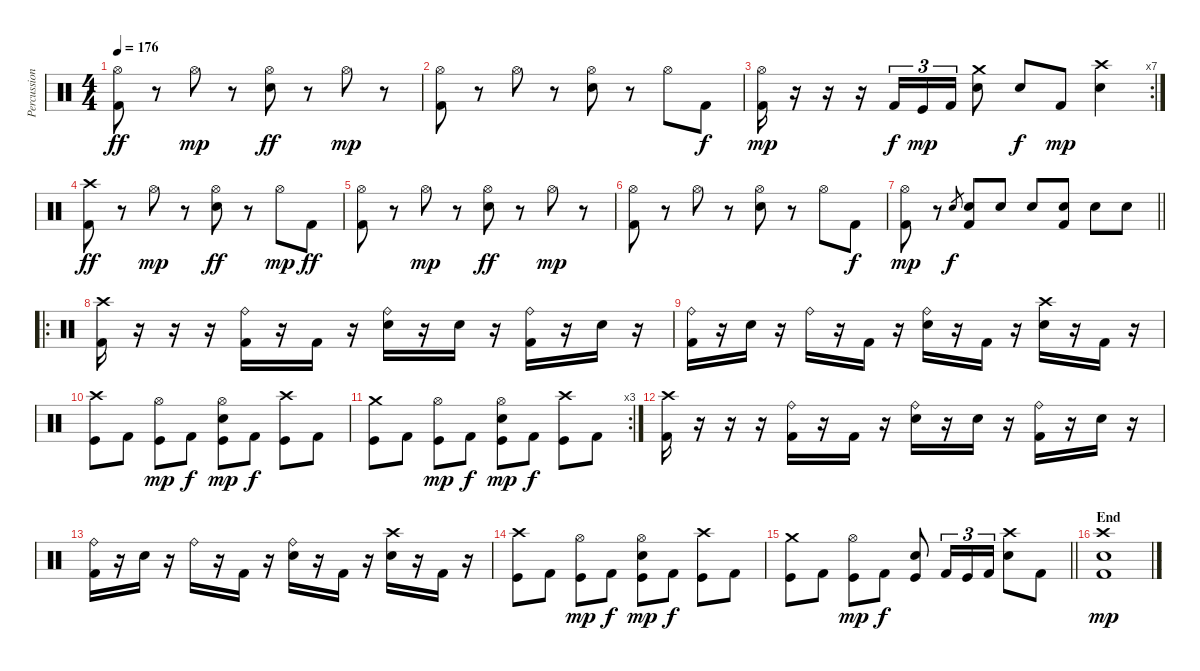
\track ("Percussion" "Percussion") {instrument percussion}
\staff {score}
\articulation defaults
\ts (4 4)
\tempo 176
\clef neutral
\ks c
("Hi-Hat (open)" "Kick (hit) 2").8{dy ff} r.8 "Hi-Hat (open)".8{dy mp} r.8 ("Hi-Hat (open)" "Electric Snare (hit)").8{dy ff} r.8 "Hi-Hat (open)".8{dy mp} r.8 |
("Hi-Hat (open)" "Kick (hit) 2").8 r.8 "Hi-Hat (open)".8 r.8 ("Hi-Hat (open)" "Electric Snare (hit)").8 r.8 "Hi-Hat (open)".8 "Kick (hit) 2".8{dy f} |
\rc 7
("Hi-Hat (open)" "Kick (hit) 2").16{dy mp} r.16 r.16 r.16 "Kick (hit) 2".16{tu (3 2) dy f} "Kick (hit)".16{tu (3 2) dy mp} "Kick (hit) 2".16{tu (3 2)} ("Crash medium (hit)" "Electric Snare (hit)").8 "Electric Snare (hit)".8{dy f} "Kick (hit) 2".8{dy mp} ("Crash high (hit)" "Electric Snare (hit)").4 |
("Crash high (hit)" "Kick (hit) 2").8{dy ff} r.8 "Hi-Hat (open)".8{dy mp} r.8 ("Hi-Hat (open)" "Electric Snare (hit)").8{dy ff} r.8 "Hi-Hat (open)".8{dy mp} "Kick (hit) 2".8{dy ff} |
("Hi-Hat (open)" "Kick (hit) 2").8 r.8 "Hi-Hat (open)".8{dy mp} r.8 ("Hi-Hat (open)" "Electric Snare (hit)").8{dy ff} r.8 "Hi-Hat (open)".8{dy mp} r.8 |
("Hi-Hat (open)" "Kick (hit) 2").8 r.8 "Hi-Hat (open)".8 r.8 ("Hi-Hat (open)" "Electric Snare (hit)").8 r.8 "Hi-Hat (open)".8 "Kick (hit) 2".8{dy f} |
\barLineRight lightlight
("Hi-Hat (open)" "Kick (hit) 2").8{dy mp} r.8 "Electric Snare (hit)"{h}.8{gr dy f} ("Electric Snare (hit)" "Kick (hit) 2").8 "Electric Snare (hit)".8 "Electric Snare (hit)".8 ("Electric Snare (hit)" "Kick (hit) 2").8 "Electric Snare (hit)".8 "Electric Snare (hit)".8 |
\ro
("Crash high (hit)" "Kick (hit) 2").16 r.16 r.16 r.16 ("Ride (bell)" "Kick (hit) 2").16 r.16 "Kick (hit) 2".16 r.16 ("Ride (bell)" "Electric Snare (hit)").16 r.16 "Electric Snare (hit)".16 r.16 ("Ride (bell)" "Kick (hit) 2").16 r.16 "Electric Snare (hit)".16 r.16 |
("Ride (bell)" "Kick (hit) 2").16 r.16 "Electric Snare (hit)".16 r.16 "Ride (bell)".16 r.16 "Kick (hit) 2".16 r.16 ("Ride (bell)" "Electric Snare (hit)").16 r.16 "Kick (hit) 2".16 r.16 ("Crash high (hit)" "Electric Snare (hit)").16 r.16 "Kick (hit) 2".16 r.16 |
("Crash high (hit)" "Kick (hit)").8 "Kick (hit) 2".8 ("Hi-Hat (open)" "Kick (hit)").8{dy mp} "Kick (hit) 2".8{dy f} ("Hi-Hat (open)" "Electric Snare (hit)" "Kick (hit)").8{dy mp} "Kick (hit) 2".8{dy f} ("Crash high (hit)" "Kick (hit)").8 "Kick (hit) 2".8 |
\rc 3
("Crash medium (hit)" "Kick (hit)").8 "Kick (hit) 2".8 ("Hi-Hat (open)" "Kick (hit)").8{dy mp} "Kick (hit) 2".8{dy f} ("Hi-Hat (open)" "Electric Snare (hit)" "Kick (hit)").8{dy mp} "Kick (hit) 2".8{dy f} ("Crash high (hit)" "Kick (hit)").8 "Kick (hit) 2".8 |
("Crash high (hit)" "Kick (hit) 2").16 r.16 r.16 r.16 ("Ride (bell)" "Kick (hit) 2").16 r.16 "Kick (hit) 2".16 r.16 ("Ride (bell)" "Electric Snare (hit)").16 r.16 "Electric Snare (hit)".16 r.16 ("Ride (bell)" "Kick (hit) 2").16 r.16 "Electric Snare (hit)".16 r.16 |
("Ride (bell)" "Kick (hit) 2").16 r.16 "Electric Snare (hit)".16 r.16 "Ride (bell)".16 r.16 "Kick (hit) 2".16 r.16 ("Ride (bell)" "Electric Snare (hit)").16 r.16 "Kick (hit) 2".16 r.16 ("Crash high (hit)" "Electric Snare (hit)").16 r.16 "Kick (hit) 2".16 r.16 |
("Crash high (hit)" "Kick (hit)").8 "Kick (hit) 2".8 ("Hi-Hat (open)" "Kick (hit)").8{dy mp} "Kick (hit) 2".8{dy f} ("Hi-Hat (open)" "Electric Snare (hit)" "Kick (hit)").8{dy mp} "Kick (hit) 2".8{dy f} ("Crash high (hit)" "Kick (hit)").8 "Kick (hit) 2".8 |
\barLineRight lightlight
("Crash medium (hit)" "Kick (hit)").8 "Kick (hit) 2".8 ("Hi-Hat (open)" "Kick (hit)").8{dy mp} "Kick (hit) 2".8{dy f} ("Electric Snare (hit)" "Kick (hit)").8 "Kick (hit) 2".16{tu (3 2)} "Kick (hit)".16{tu (3 2)} "Kick (hit) 2".16{tu (3 2)} ("Crash high (hit)" "Electric Snare (hit)").8 "Kick (hit) 2".8 |
\section ("" "End")
("Crash high (hit)" "Electric Snare (hit)" "Kick (hit) 2").1{dy mp}
